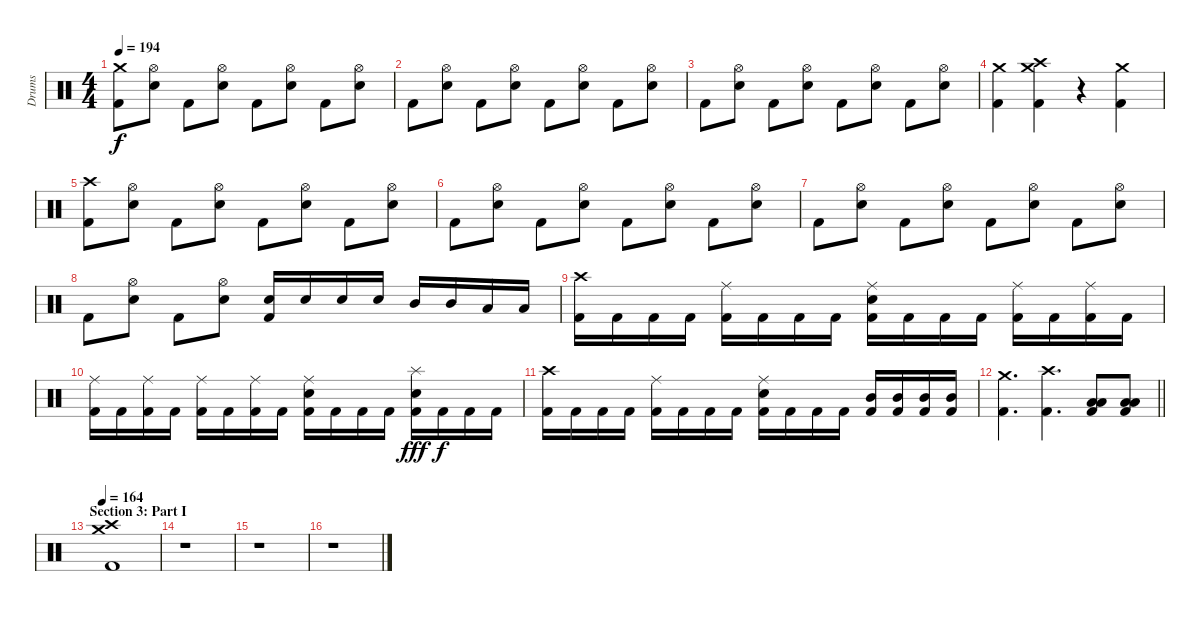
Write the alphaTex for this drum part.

\track ("Drums" "Drums") {instrument percussion}
\staff {score}
\articulation defaults
\ts (4 4)
\tempo 194
\clef neutral
\ks c
("Crash medium (hit)" "Kick (hit) 2").8{dy f} ("Hi-Hat (open)" "Electric Snare (hit)").8 "Kick (hit) 2".8 ("Hi-Hat (open)" "Electric Snare (hit)").8 "Kick (hit) 2".8 ("Hi-Hat (open)" "Electric Snare (hit)").8 "Kick (hit) 2".8 ("Hi-Hat (open)" "Electric Snare (hit)").8 |
"Kick (hit) 2".8 ("Hi-Hat (open)" "Electric Snare (hit)").8 "Kick (hit) 2".8 ("Hi-Hat (open)" "Electric Snare (hit)").8 "Kick (hit) 2".8 ("Hi-Hat (open)" "Electric Snare (hit)").8 "Kick (hit) 2".8 ("Hi-Hat (open)" "Electric Snare (hit)").8 |
"Kick (hit) 2".8 ("Hi-Hat (open)" "Electric Snare (hit)").8 "Kick (hit) 2".8 ("Hi-Hat (open)" "Electric Snare (hit)").8 "Kick (hit) 2".8 ("Hi-Hat (open)" "Electric Snare (hit)").8 "Kick (hit) 2".8 ("Hi-Hat (open)" "Electric Snare (hit)").8 |
("Crash medium (hit)" "Kick (hit) 2").4 ("Crash high (hit)" "Crash medium (hit)" "Kick (hit) 2").4 r.4 ("Crash medium (hit)" "Kick (hit) 2").4 |
("Crash high (hit)" "Kick (hit) 2").8 ("Hi-Hat (open)" "Electric Snare (hit)").8 "Kick (hit) 2".8 ("Hi-Hat (open)" "Electric Snare (hit)").8 "Kick (hit) 2".8 ("Hi-Hat (open)" "Electric Snare (hit)").8 "Kick (hit) 2".8 ("Hi-Hat (open)" "Electric Snare (hit)").8 |
"Kick (hit) 2".8 ("Hi-Hat (open)" "Electric Snare (hit)").8 "Kick (hit) 2".8 ("Hi-Hat (open)" "Electric Snare (hit)").8 "Kick (hit) 2".8 ("Hi-Hat (open)" "Electric Snare (hit)").8 "Kick (hit) 2".8 ("Hi-Hat (open)" "Electric Snare (hit)").8 |
"Kick (hit) 2".8 ("Hi-Hat (open)" "Electric Snare (hit)").8 "Kick (hit) 2".8 ("Hi-Hat (open)" "Electric Snare (hit)").8 "Kick (hit) 2".8 ("Hi-Hat (open)" "Electric Snare (hit)").8 "Kick (hit) 2".8 ("Hi-Hat (open)" "Electric Snare (hit)").8 |
"Kick (hit) 2".8 ("Hi-Hat (open)" "Electric Snare (hit)").8 "Kick (hit) 2".8 ("Hi-Hat (open)" "Electric Snare (hit)").8 ("Electric Snare (hit)" "Kick (hit) 2").16 "Electric Snare (hit)".16 "Electric Snare (hit)".16 "Electric Snare (hit)".16 "Mid Tom (hit)".16 "Mid Tom (hit)".16 "Low Tom (hit)".16 "Low Tom (hit)".16 |
("Crash high (hit)" "Kick (hit) 2").16 "Kick (hit) 2".16 "Kick (hit) 2".16 "Kick (hit) 2".16 ("Ride (middle)" "Kick (hit) 2").16 "Kick (hit) 2".16 "Kick (hit) 2".16 "Kick (hit) 2".16 ("Ride (middle)" "Electric Snare (hit)" "Kick (hit) 2").16 "Kick (hit) 2".16 "Kick (hit) 2".16 "Kick (hit) 2".16 ("Ride (middle)" "Kick (hit) 2").16 "Kick (hit) 2".16 ("Ride (middle)" "Kick (hit) 2").16 "Kick (hit) 2".16 |
("Ride (middle)" "Kick (hit) 2").16 "Kick (hit) 2".16 ("Ride (middle)" "Kick (hit) 2").16 "Kick (hit) 2".16 ("Ride (middle)" "Kick (hit) 2").16 "Kick (hit) 2".16 ("Ride (middle)" "Kick (hit) 2").16 "Kick (hit) 2".16 ("Ride (middle)" "Electric Snare (hit)" "Kick (hit) 2").16 "Kick (hit) 2".16 "Kick (hit) 2".16 "Kick (hit) 2".16 ("Splash (hit)" "Electric Snare (hit)" "Kick (hit) 2").16{dy fff} "Kick (hit) 2".16{dy f} "Kick (hit) 2".16 "Kick (hit) 2".16 |
("Crash high (hit)" "Kick (hit) 2").16 "Kick (hit) 2".16 "Kick (hit) 2".16 "Kick (hit) 2".16 ("Ride (middle)" "Kick (hit) 2").16 "Kick (hit) 2".16 "Kick (hit) 2".16 "Kick (hit) 2".16 ("Ride (middle)" "Electric Snare (hit)" "Kick (hit) 2").16 "Kick (hit) 2".16 "Kick (hit) 2".16 "Kick (hit) 2".16 ("Mid Tom (hit)" "Kick (hit) 2").16 ("Mid Tom (hit)" "Kick (hit) 2").16 ("Mid Tom (hit)" "Kick (hit) 2").16 ("Mid Tom (hit)" "Kick (hit) 2").16 |
\barLineRight lightlight
("Crash medium (hit)" "Kick (hit) 2").4{d} ("Crash high (hit)" "Kick (hit) 2").4{d} ("Low Floor Tom (hit)" "Low Floor Tom (hit)" "Kick (hit) 2").8 ("Low Floor Tom (hit)" "Low Floor Tom (hit)" "Kick (hit) 2").8 |
\section ("" "Section 3: Part I")
\tempo 164
("Crash high (hit)" "Crash medium (hit)" "Kick (hit) 2").1 |
r.1 |
r.1 |
r.1
